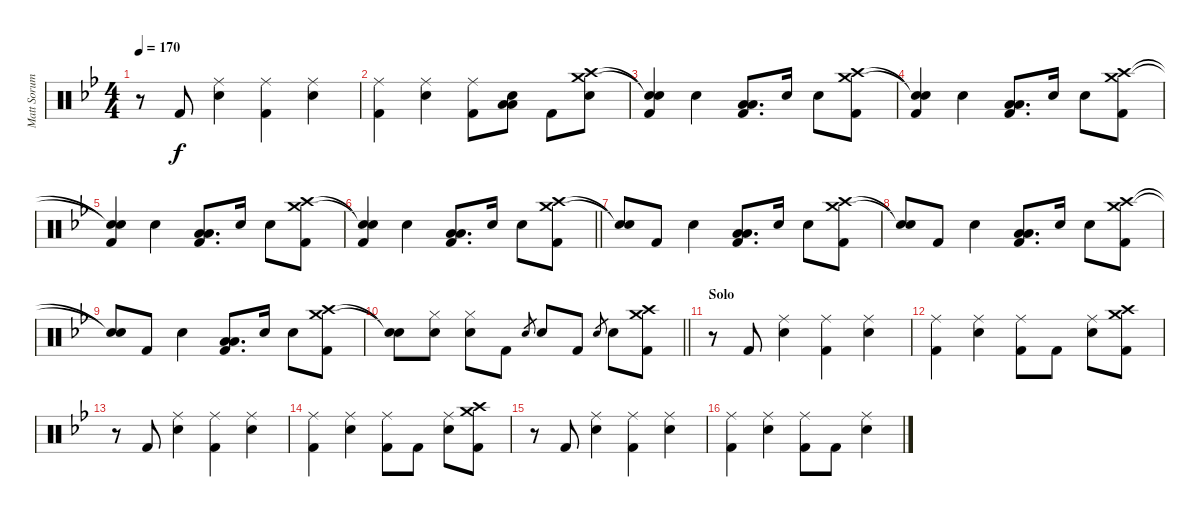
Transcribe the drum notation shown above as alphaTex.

\track ("Matt Sorum - Drums" "Matt Sorum") {instrument percussion}
\staff {score}
\articulation defaults
\ts (4 4)
\tempo 170
\clef neutral
\ks bb
r.8{dy f} "Kick (hit) 2".8 ("Ride (middle)" "Snare (hit) 2").4 ("Ride (middle)" "Kick (hit) 2").4 ("Ride (middle)" "Snare (hit) 2").4 |
("Ride (middle)" "Kick (hit) 2").4 ("Ride (middle)" "Snare (hit) 2").4 ("Ride (middle)" "Kick (hit) 2").8 ("Low Tom (hit)" "Low Tom (hit)" "Snare (hit) 2").8 "Kick (hit) 2".8 ("Crash medium (hit)" "Crash high (hit)" "Snare (hit) 2").8 |
("Snare (hit)"{t} "Snare (hit)"{t} "Kick (hit) 2").4 "Snare (hit) 2".4 ("Low Tom (hit)" "Low Tom (hit)" "Kick (hit) 2").8{d} "Snare (hit) 2".16 "Snare (hit) 2".8 ("Crash medium (hit)" "Crash high (hit)" "Kick (hit) 2").8 |
("Snare (hit)"{t} "Snare (hit)"{t} "Kick (hit) 2").4 "Snare (hit) 2".4 ("Low Tom (hit)" "Low Tom (hit)" "Kick (hit) 2").8{d} "Snare (hit) 2".16 "Snare (hit) 2".8 ("Crash medium (hit)" "Crash high (hit)" "Kick (hit) 2").8 |
("Snare (hit)"{t} "Snare (hit)"{t} "Kick (hit) 2").4 "Snare (hit) 2".4 ("Low Tom (hit)" "Low Tom (hit)" "Kick (hit) 2").8{d} "Snare (hit) 2".16 "Snare (hit) 2".8 ("Crash medium (hit)" "Crash high (hit)" "Kick (hit) 2").8 |
\barLineRight lightlight
("Snare (hit)"{t} "Snare (hit)"{t} "Kick (hit) 2").4 "Snare (hit) 2".4 ("Low Tom (hit)" "Low Tom (hit)" "Kick (hit) 2").8{d} "Snare (hit) 2".16 "Snare (hit) 2".8 ("Crash medium (hit)" "Crash high (hit)" "Kick (hit) 2").8 |
("Snare (hit)"{t} "Snare (hit)"{t}).8 "Kick (hit) 2".8 "Snare (hit) 2".4 ("Low Tom (hit)" "Low Tom (hit)" "Kick (hit) 2").8{d} "Snare (hit) 2".16 "Snare (hit) 2".8 ("Crash medium (hit)" "Crash high (hit)" "Kick (hit) 2").8 |
("Snare (hit)"{t} "Snare (hit)"{t}).8 "Kick (hit) 2".8 "Snare (hit) 2".4 ("Low Tom (hit)" "Low Tom (hit)" "Kick (hit) 2").8{d} "Snare (hit) 2".16 "Snare (hit) 2".8 ("Crash medium (hit)" "Crash high (hit)" "Kick (hit) 2").8 |
("Snare (hit)"{t} "Snare (hit)"{t}).8 "Kick (hit) 2".8 "Snare (hit) 2".4 ("Low Tom (hit)" "Low Tom (hit)" "Kick (hit) 2").8{d} "Snare (hit) 2".16 "Snare (hit) 2".8 ("Crash medium (hit)" "Crash high (hit)" "Kick (hit) 2").8 |
\barLineRight lightlight
("Snare (hit)"{t} "Snare (hit)"{t}).8 ("Hi-Hat (closed)" "Snare (hit) 2").8 ("Hi-Hat (closed)" "Snare (hit) 2").8 "Kick (hit) 2".8 "Snare (hit) 2".8{gr} "Snare (hit) 2".8 "Kick (hit) 2".8 "Snare (hit) 2".8{gr} "Snare (hit) 2".8 ("Crash medium (hit)" "Crash high (hit)" "Kick (hit) 2").8 |
\section ("" "Solo")
r.8 "Kick (hit) 2".8 ("Ride (middle)" "Snare (hit) 2").4 ("Ride (middle)" "Kick (hit) 2").4 ("Ride (middle)" "Snare (hit) 2").4 |
("Ride (middle)" "Kick (hit) 2").4 ("Ride (middle)" "Snare (hit) 2").4 ("Ride (middle)" "Kick (hit) 2").8 "Kick (hit) 2".8 ("Ride (middle)" "Snare (hit) 2").8 ("Crash medium (hit)" "Crash high (hit)" "Kick (hit) 2").8 |
r.8 "Kick (hit) 2".8 ("Ride (middle)" "Snare (hit) 2").4 ("Ride (middle)" "Kick (hit) 2").4 ("Ride (middle)" "Snare (hit) 2").4 |
("Ride (middle)" "Kick (hit) 2").4 ("Ride (middle)" "Snare (hit) 2").4 ("Ride (middle)" "Kick (hit) 2").8 "Kick (hit) 2".8 ("Ride (middle)" "Snare (hit) 2").8 ("Crash medium (hit)" "Crash high (hit)" "Kick (hit) 2").8 |
r.8 "Kick (hit) 2".8 ("Ride (middle)" "Snare (hit) 2").4 ("Ride (middle)" "Kick (hit) 2").4 ("Ride (middle)" "Snare (hit) 2").4 |
("Ride (middle)" "Kick (hit) 2").4 ("Ride (middle)" "Snare (hit) 2").4 ("Ride (middle)" "Kick (hit) 2").8 "Kick (hit) 2".8 ("Ride (middle)" "Snare (hit) 2").4
